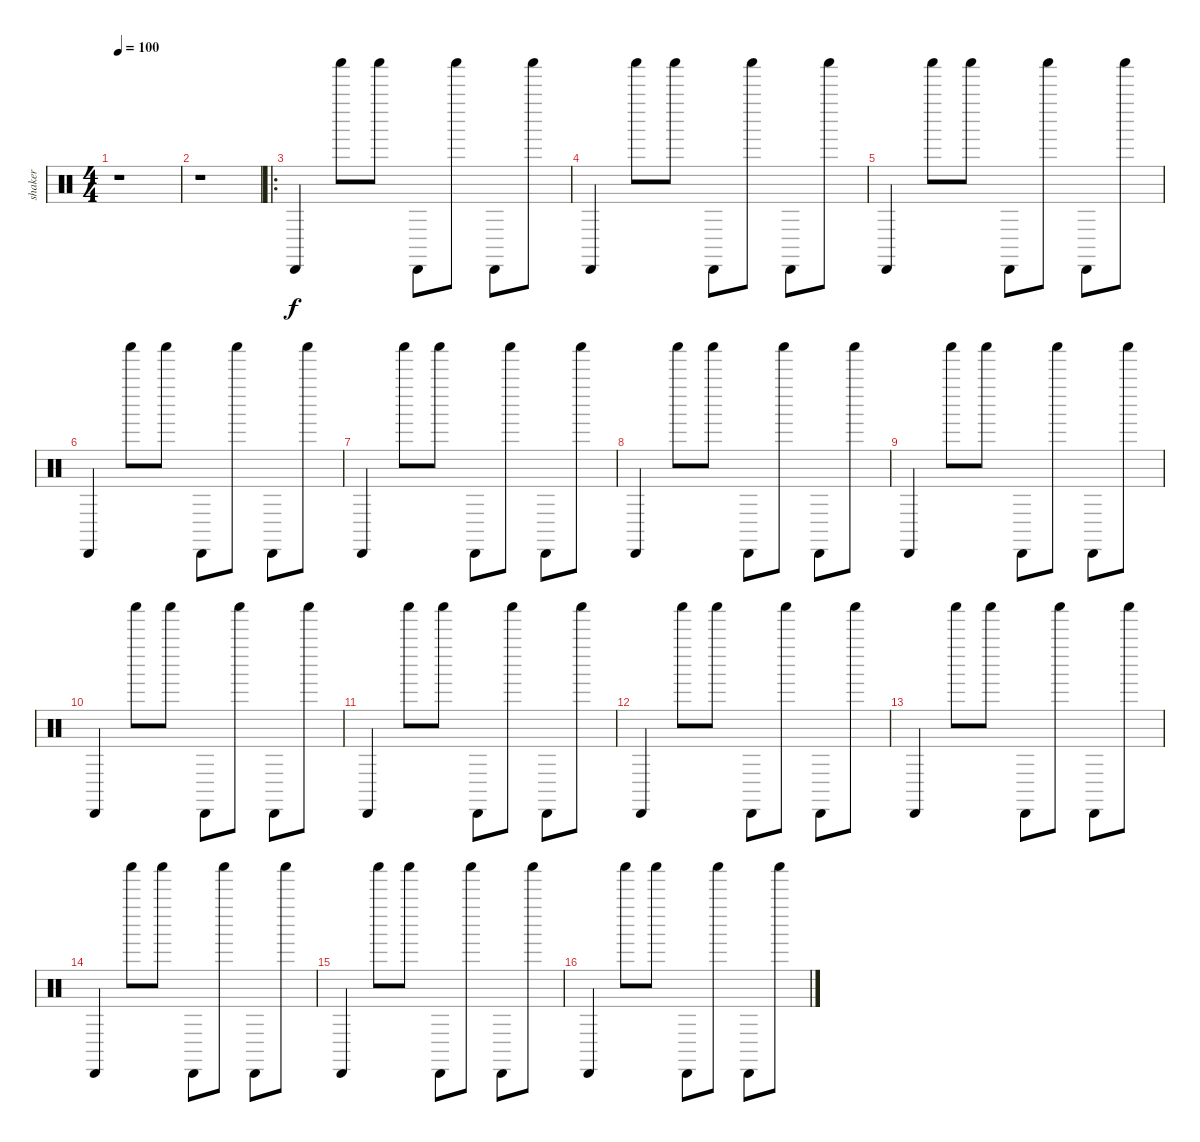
\track ("shaker" "shaker") {instrument percussion}
\staff {score}
\articulation defaults
\ts (4 4)
\tempo 100
\clef neutral
\ks c
r.1{dy f} |
r.1 |
\ro "Cabasa (hit)".4 "Shaker (hit)".8 "Shaker (hit)".8 "Cabasa (hit)".8 "Shaker (hit)".8 "Cabasa (hit)".8 "Shaker (hit)".8
|
"Cabasa (hit)".4 "Shaker (hit)".8 "Shaker (hit)".8 "Cabasa (hit)".8 "Shaker (hit)".8 "Cabasa (hit)".8 "Shaker (hit)".8 |
"Cabasa (hit)".4 "Shaker (hit)".8 "Shaker (hit)".8 "Cabasa (hit)".8 "Shaker (hit)".8 "Cabasa (hit)".8 "Shaker (hit)".8 |
"Cabasa (hit)".4 "Shaker (hit)".8 "Shaker (hit)".8 "Cabasa (hit)".8 "Shaker (hit)".8 "Cabasa (hit)".8 "Shaker (hit)".8 |
"Cabasa (hit)".4 "Shaker (hit)".8 "Shaker (hit)".8 "Cabasa (hit)".8 "Shaker (hit)".8 "Cabasa (hit)".8 "Shaker (hit)".8 |
"Cabasa (hit)".4 "Shaker (hit)".8 "Shaker (hit)".8 "Cabasa (hit)".8 "Shaker (hit)".8 "Cabasa (hit)".8 "Shaker (hit)".8 |
"Cabasa (hit)".4 "Shaker (hit)".8 "Shaker (hit)".8 "Cabasa (hit)".8 "Shaker (hit)".8 "Cabasa (hit)".8 "Shaker (hit)".8 |
"Cabasa (hit)".4 "Shaker (hit)".8 "Shaker (hit)".8 "Cabasa (hit)".8 "Shaker (hit)".8 "Cabasa (hit)".8 "Shaker (hit)".8 |
"Cabasa (hit)".4 "Shaker (hit)".8 "Shaker (hit)".8 "Cabasa (hit)".8 "Shaker (hit)".8 "Cabasa (hit)".8 "Shaker (hit)".8 |
"Cabasa (hit)".4 "Shaker (hit)".8 "Shaker (hit)".8 "Cabasa (hit)".8 "Shaker (hit)".8 "Cabasa (hit)".8 "Shaker (hit)".8 |
"Cabasa (hit)".4 "Shaker (hit)".8 "Shaker (hit)".8 "Cabasa (hit)".8 "Shaker (hit)".8 "Cabasa (hit)".8 "Shaker (hit)".8 |
"Cabasa (hit)".4 "Shaker (hit)".8 "Shaker (hit)".8 "Cabasa (hit)".8 "Shaker (hit)".8 "Cabasa (hit)".8 "Shaker (hit)".8 |
"Cabasa (hit)".4 "Shaker (hit)".8 "Shaker (hit)".8 "Cabasa (hit)".8 "Shaker (hit)".8 "Cabasa (hit)".8 "Shaker (hit)".8 |
"Cabasa (hit)".4 "Shaker (hit)".8 "Shaker (hit)".8 "Cabasa (hit)".8 "Shaker (hit)".8 "Cabasa (hit)".8 "Shaker (hit)".8
